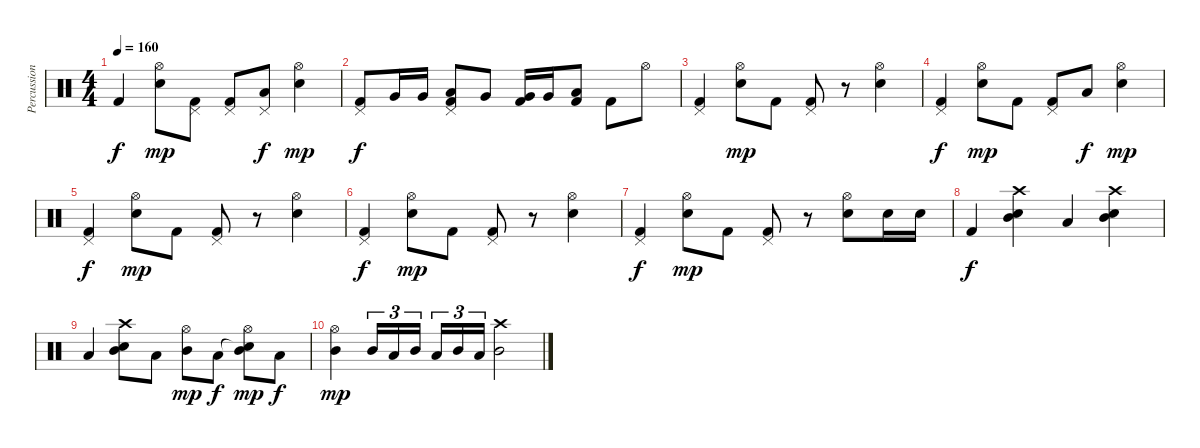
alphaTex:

\track ("Percussions" "Percussion") {instrument percussion}
\staff {score}
\articulation defaults
\ts (4 4)
\tempo 160
\clef neutral
\ks c "Kick (hit) 2".4{dy f}
("Hi-Hat (open)" "Snare (hit) 2").8{dy mp} ("Pedal Hi-Hat (hit)" "Kick (hit) 2").8 ("Pedal Hi-Hat (hit)" "Kick (hit) 2").8 ("Pedal Hi-Hat (hit)" "Low Floor Tom (hit)").8{dy f} ("Hi-Hat (open)" "Snare (hit) 2").4{dy mp} |
("Pedal Hi-Hat (hit)" "Kick (hit) 2").8{dy f} "Very Low Tom (hit)".16 "Very Low Tom (hit)".16 ("Pedal Hi-Hat (hit)" "Low Floor Tom (hit)" "Kick (hit) 2").8 "Very Low Tom (hit)".8 ("Very Low Tom (hit)" "Kick (hit) 2").16 "Very Low Tom (hit)".16 ("Low Floor Tom (hit)" "Kick (hit) 2").8 "Kick (hit) 2".8 "Hi-Hat (open)".8 |
("Pedal Hi-Hat (hit)" "Kick (hit) 2").4 ("Hi-Hat (open)" "Snare (hit) 2").8{dy mp} "Kick (hit) 2".8 ("Pedal Hi-Hat (hit)" "Kick (hit) 2").8 r.8 ("Hi-Hat (open)" "Snare (hit) 2").4 |
("Pedal Hi-Hat (hit)" "Kick (hit) 2").4{dy f} ("Hi-Hat (open)" "Snare (hit) 2").8{dy mp} "Kick (hit) 2".8 ("Pedal Hi-Hat (hit)" "Kick (hit) 2").8 "Low Floor Tom (hit)".8{dy f} ("Hi-Hat (open)" "Snare (hit) 2").4{dy mp} |
("Pedal Hi-Hat (hit)" "Kick (hit) 2").4{dy f} ("Hi-Hat (open)" "Snare (hit) 2").8{dy mp} "Kick (hit) 2".8 ("Pedal Hi-Hat (hit)" "Kick (hit) 2").8 r.8 ("Hi-Hat (open)" "Snare (hit) 2").4 |
("Pedal Hi-Hat (hit)" "Kick (hit) 2").4{dy f} ("Hi-Hat (open)" "Snare (hit) 2").8{dy mp} "Kick (hit) 2".8 ("Pedal Hi-Hat (hit)" "Kick (hit) 2").8 r.8 ("Hi-Hat (open)" "Snare (hit) 2").4 |
("Pedal Hi-Hat (hit)" "Kick (hit) 2").4{dy f} ("Hi-Hat (open)" "Snare (hit) 2").8{dy mp} "Kick (hit) 2".8 ("Pedal Hi-Hat (hit)" "Kick (hit) 2").8 r.8 ("Hi-Hat (open)" "Snare (hit) 2").8 "Snare (hit) 2".16 "Snare (hit) 2".16 |
"Kick (hit) 2".4{dy f} ("Crash high (hit)" "Snare (hit) 2" "Mid Tom (hit)").4 "Low Tom (hit)".4 ("Crash high (hit)" "Snare (hit) 2" "Mid Tom (hit)").4 |
"Low Tom (hit)".4 ("Crash high (hit)" "Snare (hit) 2" "Mid Tom (hit)").8 "Low Tom (hit)".8 ("Hi-Hat (open)" "Mid Tom (hit)").8{dy mp} "Low Tom (hit)".8{dy f} ("Snare (hit)"{t} "Hi-Hat (open)" "Mid Tom (hit)").8{dy mp} "Low Tom (hit)".8{dy f} |
("Hi-Hat (open)" "Mid Tom (hit)").4{dy mp} "Mid Tom (hit)".16{tu (3 2)} "Low Tom (hit)".16{tu (3 2)} "Mid Tom (hit)".16{tu (3 2)} "Low Tom (hit)".16{tu (3 2)} "Mid Tom (hit)".16{tu (3 2)} "Low Tom (hit)".16{tu (3 2)} ("Crash high (hit)" "Mid Tom (hit)").2
